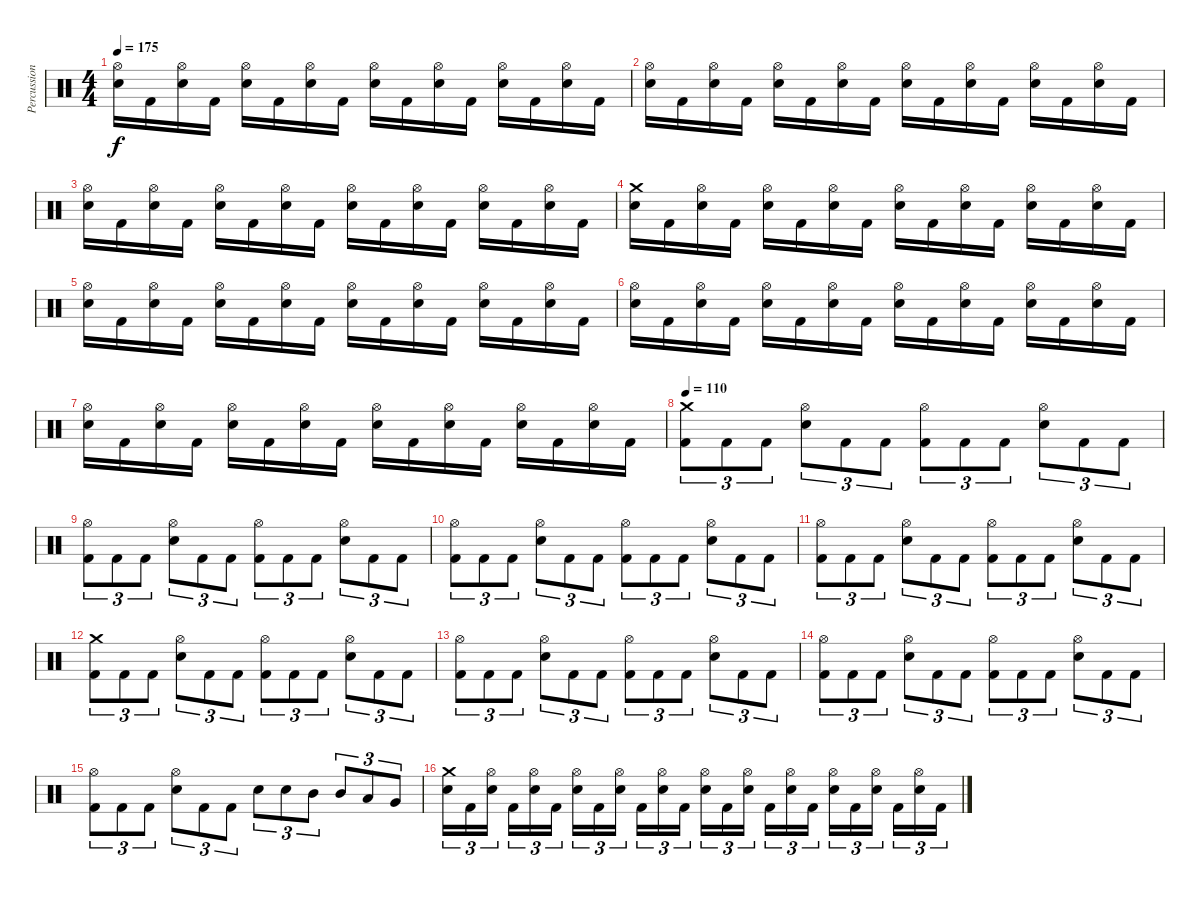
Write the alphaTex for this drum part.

\track ("Percussion" "Percussion") {instrument percussion}
\staff {score}
\articulation defaults
\ts (4 4)
\tempo 175
\clef neutral
\ks c
("Hi-Hat (open)" "Snare (hit) 2").16{dy f} "Kick (hit) 2".16 ("Hi-Hat (open)" "Snare (hit) 2").16 "Kick (hit) 2".16 ("Hi-Hat (open)" "Snare (hit) 2").16 "Kick (hit) 2".16 ("Hi-Hat (open)" "Snare (hit) 2").16 "Kick (hit) 2".16 ("Hi-Hat (open)" "Snare (hit) 2").16 "Kick (hit) 2".16 ("Hi-Hat (open)" "Snare (hit) 2").16 "Kick (hit) 2".16 ("Hi-Hat (open)" "Snare (hit) 2").16 "Kick (hit) 2".16 ("Hi-Hat (open)" "Snare (hit) 2").16 "Kick (hit) 2".16 |
("Hi-Hat (open)" "Snare (hit) 2").16 "Kick (hit) 2".16 ("Hi-Hat (open)" "Snare (hit) 2").16 "Kick (hit) 2".16 ("Hi-Hat (open)" "Snare (hit) 2").16 "Kick (hit) 2".16 ("Hi-Hat (open)" "Snare (hit) 2").16 "Kick (hit) 2".16 ("Hi-Hat (open)" "Snare (hit) 2").16 "Kick (hit) 2".16 ("Hi-Hat (open)" "Snare (hit) 2").16 "Kick (hit) 2".16 ("Hi-Hat (open)" "Snare (hit) 2").16 "Kick (hit) 2".16 ("Hi-Hat (open)" "Snare (hit) 2").16 "Kick (hit) 2".16 |
("Hi-Hat (open)" "Snare (hit) 2").16 "Kick (hit) 2".16 ("Hi-Hat (open)" "Snare (hit) 2").16 "Kick (hit) 2".16 ("Hi-Hat (open)" "Snare (hit) 2").16 "Kick (hit) 2".16 ("Hi-Hat (open)" "Snare (hit) 2").16 "Kick (hit) 2".16 ("Hi-Hat (open)" "Snare (hit) 2").16 "Kick (hit) 2".16 ("Hi-Hat (open)" "Snare (hit) 2").16 "Kick (hit) 2".16 ("Hi-Hat (open)" "Snare (hit) 2").16 "Kick (hit) 2".16 ("Hi-Hat (open)" "Snare (hit) 2").16 "Kick (hit) 2".16 |
("Crash medium (hit)" "Snare (hit) 2").16 "Kick (hit) 2".16 ("Hi-Hat (open)" "Snare (hit) 2").16 "Kick (hit) 2".16 ("Hi-Hat (open)" "Snare (hit) 2").16 "Kick (hit) 2".16 ("Hi-Hat (open)" "Snare (hit) 2").16 "Kick (hit) 2".16 ("Hi-Hat (open)" "Snare (hit) 2").16 "Kick (hit) 2".16 ("Hi-Hat (open)" "Snare (hit) 2").16 "Kick (hit) 2".16 ("Hi-Hat (open)" "Snare (hit) 2").16 "Kick (hit) 2".16 ("Hi-Hat (open)" "Snare (hit) 2").16 "Kick (hit) 2".16 |
("Hi-Hat (open)" "Snare (hit) 2").16 "Kick (hit) 2".16 ("Hi-Hat (open)" "Snare (hit) 2").16 "Kick (hit) 2".16 ("Hi-Hat (open)" "Snare (hit) 2").16 "Kick (hit) 2".16 ("Hi-Hat (open)" "Snare (hit) 2").16 "Kick (hit) 2".16 ("Hi-Hat (open)" "Snare (hit) 2").16 "Kick (hit) 2".16 ("Hi-Hat (open)" "Snare (hit) 2").16 "Kick (hit) 2".16 ("Hi-Hat (open)" "Snare (hit) 2").16 "Kick (hit) 2".16 ("Hi-Hat (open)" "Snare (hit) 2").16 "Kick (hit) 2".16 |
("Hi-Hat (open)" "Snare (hit) 2").16 "Kick (hit) 2".16 ("Hi-Hat (open)" "Snare (hit) 2").16 "Kick (hit) 2".16 ("Hi-Hat (open)" "Snare (hit) 2").16 "Kick (hit) 2".16 ("Hi-Hat (open)" "Snare (hit) 2").16 "Kick (hit) 2".16 ("Hi-Hat (open)" "Snare (hit) 2").16 "Kick (hit) 2".16 ("Hi-Hat (open)" "Snare (hit) 2").16 "Kick (hit) 2".16 ("Hi-Hat (open)" "Snare (hit) 2").16 "Kick (hit) 2".16 ("Hi-Hat (open)" "Snare (hit) 2").16 "Kick (hit) 2".16 |
("Hi-Hat (open)" "Snare (hit) 2").16 "Kick (hit) 2".16 ("Hi-Hat (open)" "Snare (hit) 2").16 "Kick (hit) 2".16 ("Hi-Hat (open)" "Snare (hit) 2").16 "Kick (hit) 2".16 ("Hi-Hat (open)" "Snare (hit) 2").16 "Kick (hit) 2".16 ("Hi-Hat (open)" "Snare (hit) 2").16 "Kick (hit) 2".16 ("Hi-Hat (open)" "Snare (hit) 2").16 "Kick (hit) 2".16 ("Hi-Hat (open)" "Snare (hit) 2").16 "Kick (hit) 2".16 ("Hi-Hat (open)" "Snare (hit) 2").16 "Kick (hit) 2".16 |
\tempo 110
("Crash medium (hit)" "Kick (hit) 2").8{tu (3 2)} "Kick (hit) 2".8{tu (3 2)} "Kick (hit) 2".8{tu (3 2)} ("Hi-Hat (open)" "Snare (hit) 2").8{tu (3 2)} "Kick (hit) 2".8{tu (3 2)} "Kick (hit) 2".8{tu (3 2)} ("Hi-Hat (open)" "Kick (hit) 2").8{tu (3 2)} "Kick (hit) 2".8{tu (3 2)} "Kick (hit) 2".8{tu (3 2)} ("Hi-Hat (open)" "Snare (hit) 2").8{tu (3 2)} "Kick (hit) 2".8{tu (3 2)} "Kick (hit) 2".8{tu (3 2)} |
("Hi-Hat (open)" "Kick (hit) 2").8{tu (3 2)} "Kick (hit) 2".8{tu (3 2)} "Kick (hit) 2".8{tu (3 2)} ("Hi-Hat (open)" "Snare (hit) 2").8{tu (3 2)} "Kick (hit) 2".8{tu (3 2)} "Kick (hit) 2".8{tu (3 2)} ("Hi-Hat (open)" "Kick (hit) 2").8{tu (3 2)} "Kick (hit) 2".8{tu (3 2)} "Kick (hit) 2".8{tu (3 2)} ("Hi-Hat (open)" "Snare (hit) 2").8{tu (3 2)} "Kick (hit) 2".8{tu (3 2)} "Kick (hit) 2".8{tu (3 2)} |
("Hi-Hat (open)" "Kick (hit) 2").8{tu (3 2)} "Kick (hit) 2".8{tu (3 2)} "Kick (hit) 2".8{tu (3 2)} ("Hi-Hat (open)" "Snare (hit) 2").8{tu (3 2)} "Kick (hit) 2".8{tu (3 2)} "Kick (hit) 2".8{tu (3 2)} ("Hi-Hat (open)" "Kick (hit) 2").8{tu (3 2)} "Kick (hit) 2".8{tu (3 2)} "Kick (hit) 2".8{tu (3 2)} ("Hi-Hat (open)" "Snare (hit) 2").8{tu (3 2)} "Kick (hit) 2".8{tu (3 2)} "Kick (hit) 2".8{tu (3 2)} |
("Hi-Hat (open)" "Kick (hit) 2").8{tu (3 2)} "Kick (hit) 2".8{tu (3 2)} "Kick (hit) 2".8{tu (3 2)} ("Hi-Hat (open)" "Snare (hit) 2").8{tu (3 2)} "Kick (hit) 2".8{tu (3 2)} "Kick (hit) 2".8{tu (3 2)} ("Hi-Hat (open)" "Kick (hit) 2").8{tu (3 2)} "Kick (hit) 2".8{tu (3 2)} "Kick (hit) 2".8{tu (3 2)} ("Hi-Hat (open)" "Snare (hit) 2").8{tu (3 2)} "Kick (hit) 2".8{tu (3 2)} "Kick (hit) 2".8{tu (3 2)} |
("Crash medium (hit)" "Kick (hit) 2").8{tu (3 2)} "Kick (hit) 2".8{tu (3 2)} "Kick (hit) 2".8{tu (3 2)} ("Hi-Hat (open)" "Snare (hit) 2").8{tu (3 2)} "Kick (hit) 2".8{tu (3 2)} "Kick (hit) 2".8{tu (3 2)} ("Hi-Hat (open)" "Kick (hit) 2").8{tu (3 2)} "Kick (hit) 2".8{tu (3 2)} "Kick (hit) 2".8{tu (3 2)} ("Hi-Hat (open)" "Snare (hit) 2").8{tu (3 2)} "Kick (hit) 2".8{tu (3 2)} "Kick (hit) 2".8{tu (3 2)} |
("Hi-Hat (open)" "Kick (hit) 2").8{tu (3 2)} "Kick (hit) 2".8{tu (3 2)} "Kick (hit) 2".8{tu (3 2)} ("Hi-Hat (open)" "Snare (hit) 2").8{tu (3 2)} "Kick (hit) 2".8{tu (3 2)} "Kick (hit) 2".8{tu (3 2)} ("Hi-Hat (open)" "Kick (hit) 2").8{tu (3 2)} "Kick (hit) 2".8{tu (3 2)} "Kick (hit) 2".8{tu (3 2)} ("Hi-Hat (open)" "Snare (hit) 2").8{tu (3 2)} "Kick (hit) 2".8{tu (3 2)} "Kick (hit) 2".8{tu (3 2)} |
("Hi-Hat (open)" "Kick (hit) 2").8{tu (3 2)} "Kick (hit) 2".8{tu (3 2)} "Kick (hit) 2".8{tu (3 2)} ("Hi-Hat (open)" "Snare (hit) 2").8{tu (3 2)} "Kick (hit) 2".8{tu (3 2)} "Kick (hit) 2".8{tu (3 2)} ("Hi-Hat (open)" "Kick (hit) 2").8{tu (3 2)} "Kick (hit) 2".8{tu (3 2)} "Kick (hit) 2".8{tu (3 2)} ("Hi-Hat (open)" "Snare (hit) 2").8{tu (3 2)} "Kick (hit) 2".8{tu (3 2)} "Kick (hit) 2".8{tu (3 2)} |
("Hi-Hat (open)" "Kick (hit) 2").8{tu (3 2)} "Kick (hit) 2".8{tu (3 2)} "Kick (hit) 2".8{tu (3 2)} ("Hi-Hat (open)" "Snare (hit) 2").8{tu (3 2)} "Kick (hit) 2".8{tu (3 2)} "Kick (hit) 2".8{tu (3 2)} "Snare (hit) 2".8{tu (3 2)} "Snare (hit) 2".8{tu (3 2)} "Mid Tom (hit)".8{tu (3 2)} "Mid Tom (hit)".8{tu (3 2)} "Low Tom (hit)".8{tu (3 2)} "Very Low Tom (hit)".8{tu (3 2)} |
("Crash medium (hit)" "Snare (hit) 2").16{tu (3 2)} "Kick (hit) 2".16{tu (3 2)} ("Hi-Hat (open)" "Snare (hit) 2").16{tu (3 2)} "Kick (hit) 2".16{tu (3 2)} ("Hi-Hat (open)" "Snare (hit) 2").16{tu (3 2)} "Kick (hit) 2".16{tu (3 2)} ("Hi-Hat (open)" "Snare (hit) 2").16{tu (3 2)} "Kick (hit) 2".16{tu (3 2)} ("Hi-Hat (open)" "Snare (hit) 2").16{tu (3 2)} "Kick (hit) 2".16{tu (3 2)} ("Hi-Hat (open)" "Snare (hit) 2").16{tu (3 2)} "Kick (hit) 2".16{tu (3 2)} ("Hi-Hat (open)" "Snare (hit) 2").16{tu (3 2)} "Kick (hit) 2".16{tu (3 2)} ("Hi-Hat (open)" "Snare (hit) 2").16{tu (3 2)} "Kick (hit) 2".16{tu (3 2)} ("Hi-Hat (open)" "Snare (hit) 2").16{tu (3 2)} "Kick (hit) 2".16{tu (3 2)} ("Hi-Hat (open)" "Snare (hit) 2").16{tu (3 2)} "Kick (hit) 2".16{tu (3 2)} ("Hi-Hat (open)" "Snare (hit) 2").16{tu (3 2)} "Kick (hit) 2".16{tu (3 2)} ("Hi-Hat (open)" "Snare (hit) 2").16{tu (3 2)} "Kick (hit) 2".16{tu (3 2)}
